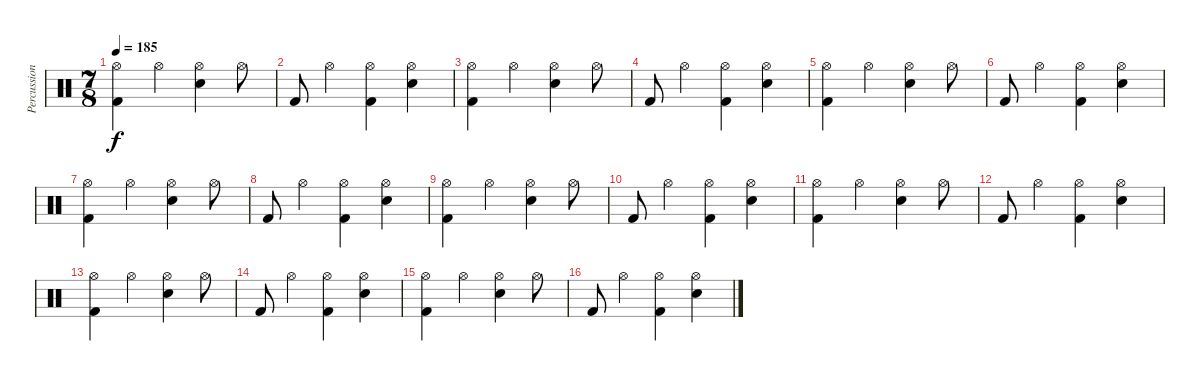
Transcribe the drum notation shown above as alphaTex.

\track ("Percussion" "Percussion") {instrument percussion}
\staff {score}
\articulation defaults
\ts (7 8)
\tempo 185
\clef neutral
\ks c
("Hi-Hat (open)" "Kick (hit) 2").4{dy f} "Hi-Hat (open)".4 ("Hi-Hat (open)" "Snare (hit) 2").4 "Hi-Hat (open)".8 |
"Kick (hit) 2".8 "Hi-Hat (open)".4 ("Hi-Hat (open)" "Kick (hit) 2").4 ("Hi-Hat (open)" "Snare (hit) 2").4 |
("Hi-Hat (open)" "Kick (hit) 2").4 "Hi-Hat (open)".4 ("Hi-Hat (open)" "Snare (hit) 2").4 "Hi-Hat (open)".8 |
"Kick (hit) 2".8 "Hi-Hat (open)".4 ("Hi-Hat (open)" "Kick (hit) 2").4 ("Hi-Hat (open)" "Snare (hit) 2").4 |
("Hi-Hat (open)" "Kick (hit) 2").4 "Hi-Hat (open)".4 ("Hi-Hat (open)" "Snare (hit) 2").4 "Hi-Hat (open)".8 |
"Kick (hit) 2".8 "Hi-Hat (open)".4 ("Hi-Hat (open)" "Kick (hit) 2").4 ("Hi-Hat (open)" "Snare (hit) 2").4 |
("Hi-Hat (open)" "Kick (hit) 2").4 "Hi-Hat (open)".4 ("Hi-Hat (open)" "Snare (hit) 2").4 "Hi-Hat (open)".8 |
"Kick (hit) 2".8 "Hi-Hat (open)".4 ("Hi-Hat (open)" "Kick (hit) 2").4 ("Hi-Hat (open)" "Snare (hit) 2").4 |
("Hi-Hat (open)" "Kick (hit) 2").4 "Hi-Hat (open)".4 ("Hi-Hat (open)" "Snare (hit) 2").4 "Hi-Hat (open)".8 |
"Kick (hit) 2".8 "Hi-Hat (open)".4 ("Hi-Hat (open)" "Kick (hit) 2").4 ("Hi-Hat (open)" "Snare (hit) 2").4 |
("Hi-Hat (open)" "Kick (hit) 2").4 "Hi-Hat (open)".4 ("Hi-Hat (open)" "Snare (hit) 2").4 "Hi-Hat (open)".8 |
"Kick (hit) 2".8 "Hi-Hat (open)".4 ("Hi-Hat (open)" "Kick (hit) 2").4 ("Hi-Hat (open)" "Snare (hit) 2").4 |
("Hi-Hat (open)" "Kick (hit) 2").4 "Hi-Hat (open)".4 ("Hi-Hat (open)" "Snare (hit) 2").4 "Hi-Hat (open)".8 |
"Kick (hit) 2".8 "Hi-Hat (open)".4 ("Hi-Hat (open)" "Kick (hit) 2").4 ("Hi-Hat (open)" "Snare (hit) 2").4 |
("Hi-Hat (open)" "Kick (hit) 2").4 "Hi-Hat (open)".4 ("Hi-Hat (open)" "Snare (hit) 2").4 "Hi-Hat (open)".8 |
"Kick (hit) 2".8 "Hi-Hat (open)".4 ("Hi-Hat (open)" "Kick (hit) 2").4 ("Hi-Hat (open)" "Snare (hit) 2").4
